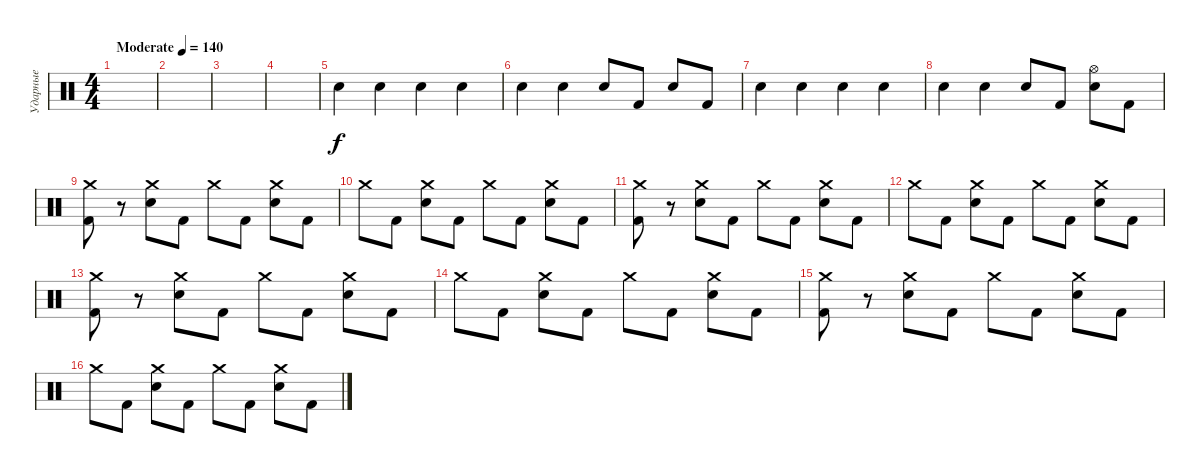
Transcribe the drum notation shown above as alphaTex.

\track ("Ударные" "Ударные") {instrument percussion}
\staff {score}
\articulation defaults
\ts (4 4)
\tempo (140 "Moderate")
\clef neutral
\ks c
|
|
|
|
"Electric Snare (hit)".4 "Electric Snare (hit)".4 "Electric Snare (hit)".4 "Electric Snare (hit)".4 |
"Electric Snare (hit)".4 "Electric Snare (hit)".4 "Electric Snare (hit)".8 "Kick (hit) 2".8 "Electric Snare (hit)".8 "Kick (hit) 2".8 |
"Electric Snare (hit)".4 "Electric Snare (hit)".4 "Electric Snare (hit)".4 "Electric Snare (hit)".4 |
"Electric Snare (hit)".4 "Electric Snare (hit)".4 "Electric Snare (hit)".8 "Kick (hit) 2".8 ("Hi-Hat (open)" "Electric Snare (hit)").8 "Kick (hit) 2".8 |
("Crash medium (hit)" "Kick (hit) 2").8 r.8 ("Crash medium (hit)" "Electric Snare (hit)").8 "Kick (hit) 2".8 "Crash medium (hit)".8 "Kick (hit) 2".8 ("Crash medium (hit)" "Electric Snare (hit)").8 "Kick (hit) 2".8 |
"Crash medium (hit)".8 "Kick (hit) 2".8 ("Crash medium (hit)" "Electric Snare (hit)").8 "Kick (hit) 2".8 "Crash medium (hit)".8 "Kick (hit) 2".8 ("Crash medium (hit)" "Electric Snare (hit)").8 "Kick (hit) 2".8 |
("Crash medium (hit)" "Kick (hit) 2").8 r.8 ("Crash medium (hit)" "Electric Snare (hit)").8 "Kick (hit) 2".8 "Crash medium (hit)".8 "Kick (hit) 2".8 ("Crash medium (hit)" "Electric Snare (hit)").8 "Kick (hit) 2".8 |
"Crash medium (hit)".8 "Kick (hit) 2".8 ("Crash medium (hit)" "Electric Snare (hit)").8 "Kick (hit) 2".8 "Crash medium (hit)".8 "Kick (hit) 2".8 ("Crash medium (hit)" "Electric Snare (hit)").8 "Kick (hit) 2".8 |
("Crash medium (hit)" "Kick (hit) 2").8 r.8 ("Crash medium (hit)" "Electric Snare (hit)").8 "Kick (hit) 2".8 "Crash medium (hit)".8 "Kick (hit) 2".8 ("Crash medium (hit)" "Electric Snare (hit)").8 "Kick (hit) 2".8 |
"Crash medium (hit)".8 "Kick (hit) 2".8 ("Crash medium (hit)" "Electric Snare (hit)").8 "Kick (hit) 2".8 "Crash medium (hit)".8 "Kick (hit) 2".8 ("Crash medium (hit)" "Electric Snare (hit)").8 "Kick (hit) 2".8 |
("Crash medium (hit)" "Kick (hit) 2").8 r.8 ("Crash medium (hit)" "Electric Snare (hit)").8 "Kick (hit) 2".8 "Crash medium (hit)".8 "Kick (hit) 2".8 ("Crash medium (hit)" "Electric Snare (hit)").8 "Kick (hit) 2".8 |
"Crash medium (hit)".8 "Kick (hit) 2".8 ("Crash medium (hit)" "Electric Snare (hit)").8 "Kick (hit) 2".8 "Crash medium (hit)".8 "Kick (hit) 2".8 ("Crash medium (hit)" "Electric Snare (hit)").8 "Kick (hit) 2".8
